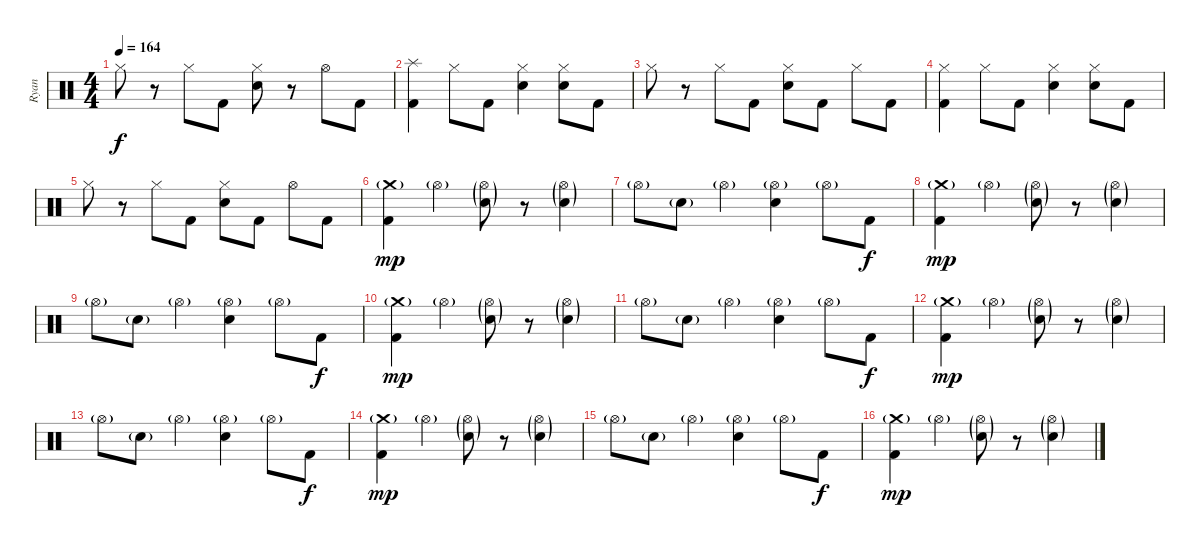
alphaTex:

\track ("Ryan" "Ryan") {instrument percussion}
\staff {score}
\articulation defaults
\ts (4 4)
\tempo 164
\clef neutral
\ks c "Hi-Hat (closed)".8{dy f}
r.8 "Hi-Hat (closed)".8 "Kick (hit) 2".8 ("Hi-Hat (closed)" "Electric Snare (hit)").8 r.8 "Hi-Hat (open)".8 "Kick (hit) 2".8 |
("Splash (hit)" "Kick (hit) 2").4 "Hi-Hat (closed)".8 "Kick (hit) 2".8 ("Hi-Hat (closed)" "Electric Snare (hit)").4 ("Hi-Hat (closed)" "Electric Snare (hit)").8 "Kick (hit) 2".8 |
"Hi-Hat (closed)".8 r.8 "Hi-Hat (closed)".8 "Kick (hit) 2".8 ("Hi-Hat (closed)" "Electric Snare (hit)").8 "Kick (hit) 2".8 "Hi-Hat (closed)".8 "Kick (hit) 2".8 |
("Hi-Hat (closed)" "Kick (hit) 2").4 "Hi-Hat (closed)".8 "Kick (hit) 2".8 ("Hi-Hat (closed)" "Electric Snare (hit)").4 ("Hi-Hat (closed)" "Electric Snare (hit)").8 "Kick (hit) 2".8 |
"Hi-Hat (closed)".8 r.8 "Hi-Hat (closed)".8 "Kick (hit) 2".8 ("Hi-Hat (closed)" "Electric Snare (hit)").8 "Kick (hit) 2".8 "Hi-Hat (open)".8 "Kick (hit) 2".8 |
("Crash medium (hit)"{g} "Kick (hit) 2").4{dy mp} "Hi-Hat (open)"{g}.4 ("Hi-Hat (open)"{g} "Electric Snare (hit)"{g}).8 r.8 ("Hi-Hat (open)"{g} "Electric Snare (hit)"{g}).4 |
"Hi-Hat (open)"{g}.8 "Electric Snare (hit)"{g}.8 "Hi-Hat (open)"{g}.4 ("Hi-Hat (open)"{g} "Electric Snare (hit)").4 "Hi-Hat (open)"{g}.8 "Kick (hit) 2".8{dy f} |
("Crash medium (hit)"{g} "Kick (hit) 2").4{dy mp} "Hi-Hat (open)"{g}.4 ("Hi-Hat (open)"{g} "Electric Snare (hit)"{g}).8 r.8 ("Hi-Hat (open)"{g} "Electric Snare (hit)"{g}).4 |
"Hi-Hat (open)"{g}.8 "Electric Snare (hit)"{g}.8 "Hi-Hat (open)"{g}.4 ("Hi-Hat (open)"{g} "Electric Snare (hit)").4 "Hi-Hat (open)"{g}.8 "Kick (hit) 2".8{dy f} |
("Crash medium (hit)"{g} "Kick (hit) 2").4{dy mp} "Hi-Hat (open)"{g}.4 ("Hi-Hat (open)"{g} "Electric Snare (hit)"{g}).8 r.8 ("Hi-Hat (open)"{g} "Electric Snare (hit)"{g}).4 |
"Hi-Hat (open)"{g}.8 "Electric Snare (hit)"{g}.8 "Hi-Hat (open)"{g}.4 ("Hi-Hat (open)"{g} "Electric Snare (hit)").4 "Hi-Hat (open)"{g}.8 "Kick (hit) 2".8{dy f} |
("Crash medium (hit)"{g} "Kick (hit) 2").4{dy mp} "Hi-Hat (open)"{g}.4 ("Hi-Hat (open)"{g} "Electric Snare (hit)"{g}).8 r.8 ("Hi-Hat (open)"{g} "Electric Snare (hit)"{g}).4 |
"Hi-Hat (open)"{g}.8 "Electric Snare (hit)"{g}.8 "Hi-Hat (open)"{g}.4 ("Hi-Hat (open)"{g} "Electric Snare (hit)").4 "Hi-Hat (open)"{g}.8 "Kick (hit) 2".8{dy f} |
("Crash medium (hit)"{g} "Kick (hit) 2").4{dy mp} "Hi-Hat (open)"{g}.4 ("Hi-Hat (open)"{g} "Electric Snare (hit)"{g}).8 r.8 ("Hi-Hat (open)"{g} "Electric Snare (hit)"{g}).4 |
"Hi-Hat (open)"{g}.8 "Electric Snare (hit)"{g}.8 "Hi-Hat (open)"{g}.4 ("Hi-Hat (open)"{g} "Electric Snare (hit)").4 "Hi-Hat (open)"{g}.8 "Kick (hit) 2".8{dy f} |
("Crash medium (hit)"{g} "Kick (hit) 2").4{dy mp} "Hi-Hat (open)"{g}.4 ("Hi-Hat (open)"{g} "Electric Snare (hit)"{g}).8 r.8 ("Hi-Hat (open)"{g} "Electric Snare (hit)"{g}).4
